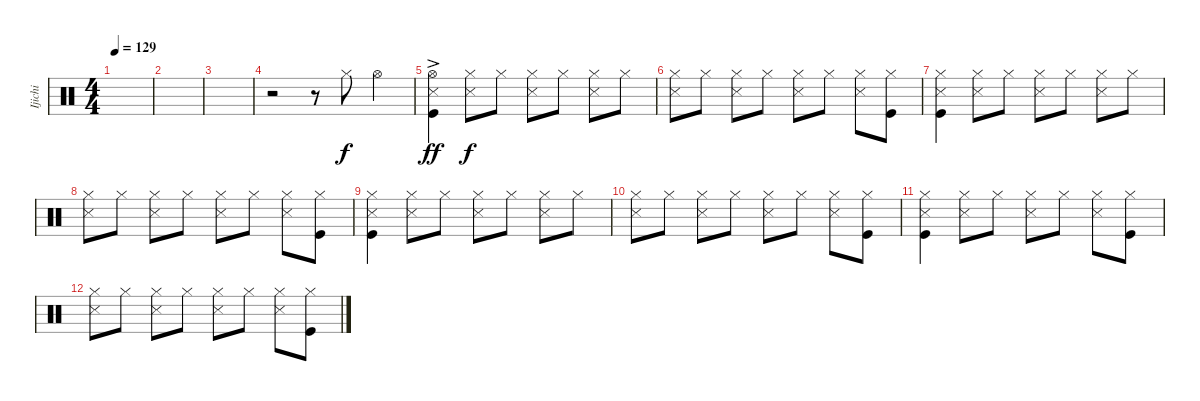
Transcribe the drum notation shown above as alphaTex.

\track ("Ijichi" "Ijichi") {instrument percussion}
\staff {score}
\articulation defaults
\ts (4 4)
\tempo 129
\clef neutral
\ks c
|
|
|
r.2 r.8 "Hi-Hat (closed)".8 "Hi-Hat (open)".4 |
("Hi-Hat (open)"{ac} "Snare (side stick) 3" "Kick (hit)").4{dy ff} ("Hi-Hat (closed)" "Snare (side stick) 3").8{dy f} "Hi-Hat (closed)".8 ("Hi-Hat (closed)" "Snare (side stick) 3").8 "Hi-Hat (closed)".8 ("Hi-Hat (closed)" "Snare (side stick) 3").8 "Hi-Hat (closed)".8 |
("Hi-Hat (closed)" "Snare (side stick) 3").8 "Hi-Hat (closed)".8 ("Hi-Hat (closed)" "Snare (side stick) 3").8 "Hi-Hat (closed)".8 ("Hi-Hat (closed)" "Snare (side stick) 3").8 "Hi-Hat (closed)".8 ("Hi-Hat (closed)" "Snare (side stick) 3").8 ("Hi-Hat (closed)" "Kick (hit)").8 |
("Hi-Hat (closed)" "Snare (side stick) 3" "Kick (hit)").4 ("Hi-Hat (closed)" "Snare (side stick) 3").8 "Hi-Hat (closed)".8 ("Hi-Hat (closed)" "Snare (side stick) 3").8 "Hi-Hat (closed)".8 ("Hi-Hat (closed)" "Snare (side stick) 3").8 "Hi-Hat (closed)".8 |
("Hi-Hat (closed)" "Snare (side stick) 3").8 "Hi-Hat (closed)".8 ("Hi-Hat (closed)" "Snare (side stick) 3").8 "Hi-Hat (closed)".8 ("Hi-Hat (closed)" "Snare (side stick) 3").8 "Hi-Hat (closed)".8 ("Hi-Hat (closed)" "Snare (side stick) 3").8 ("Hi-Hat (closed)" "Kick (hit)").8 |
("Hi-Hat (closed)" "Snare (side stick) 3" "Kick (hit)").4 ("Hi-Hat (closed)" "Snare (side stick) 3").8 "Hi-Hat (closed)".8 ("Hi-Hat (closed)" "Snare (side stick) 3").8 "Hi-Hat (closed)".8 ("Hi-Hat (closed)" "Snare (side stick) 3").8 "Hi-Hat (closed)".8 |
("Hi-Hat (closed)" "Snare (side stick) 3").8 "Hi-Hat (closed)".8 ("Hi-Hat (closed)" "Snare (side stick) 3").8 "Hi-Hat (closed)".8 ("Hi-Hat (closed)" "Snare (side stick) 3").8 "Hi-Hat (closed)".8 ("Hi-Hat (closed)" "Snare (side stick) 3").8 ("Hi-Hat (closed)" "Kick (hit)").8 |
("Hi-Hat (closed)" "Snare (side stick) 3" "Kick (hit)").4 ("Hi-Hat (closed)" "Snare (side stick) 3").8 "Hi-Hat (closed)".8 ("Hi-Hat (closed)" "Snare (side stick) 3").8 "Hi-Hat (closed)".8 ("Hi-Hat (closed)" "Snare (side stick) 3").8 ("Hi-Hat (closed)" "Kick (hit)").8 |
("Hi-Hat (closed)" "Snare (side stick) 3").8 "Hi-Hat (closed)".8 ("Hi-Hat (closed)" "Snare (side stick) 3").8 "Hi-Hat (closed)".8 ("Hi-Hat (closed)" "Snare (side stick) 3").8 "Hi-Hat (closed)".8 ("Hi-Hat (closed)" "Snare (side stick) 3").8 ("Hi-Hat (closed)" "Kick (hit)").8
